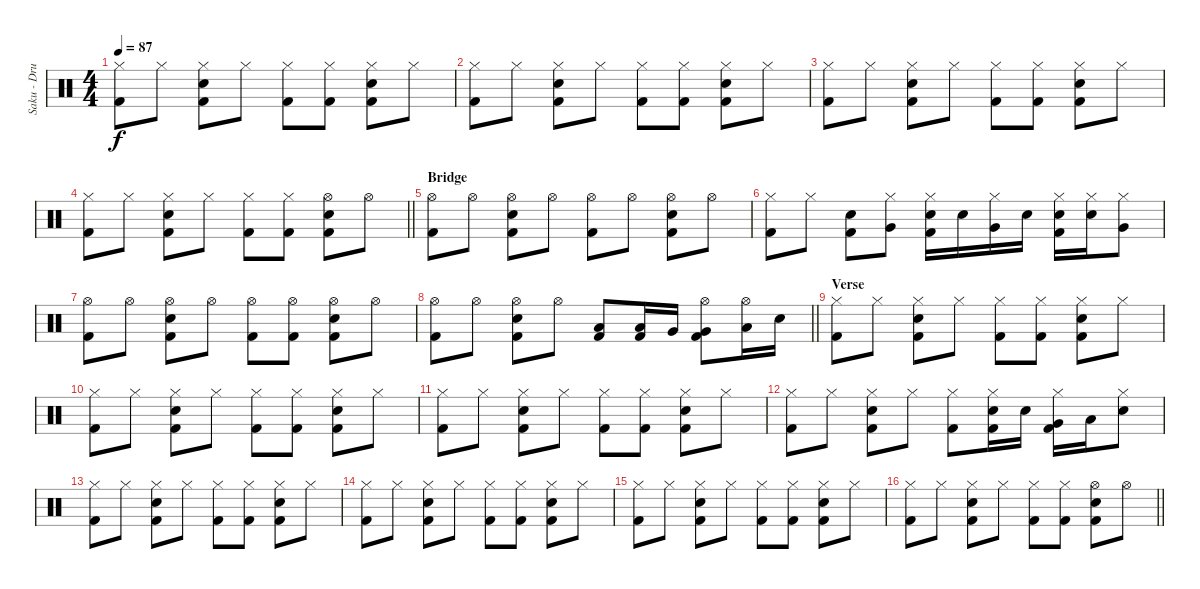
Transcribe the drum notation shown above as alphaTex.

\track ("Saku - Drums" "Saku - Dru") {instrument percussion}
\staff {score}
\articulation defaults
\ts (4 4)
\tempo 87
\clef neutral
\ks c
("Kick (hit) 2" "Hi-Hat (closed)").8{dy f} "Hi-Hat (closed)".8 ("Kick (hit) 2" "Snare (hit) 2" "Hi-Hat (closed)").8 "Hi-Hat (closed)".8 ("Kick (hit) 2" "Hi-Hat (closed)").8 ("Kick (hit) 2" "Hi-Hat (closed)").8 ("Kick (hit) 2" "Snare (hit) 2" "Hi-Hat (closed)").8 "Hi-Hat (closed)".8 |
("Kick (hit) 2" "Hi-Hat (closed)").8 "Hi-Hat (closed)".8 ("Kick (hit) 2" "Snare (hit) 2" "Hi-Hat (closed)").8 "Hi-Hat (closed)".8 ("Kick (hit) 2" "Hi-Hat (closed)").8 ("Kick (hit) 2" "Hi-Hat (closed)").8 ("Kick (hit) 2" "Snare (hit) 2" "Hi-Hat (closed)").8 "Hi-Hat (closed)".8 |
("Kick (hit) 2" "Hi-Hat (closed)").8 "Hi-Hat (closed)".8 ("Kick (hit) 2" "Snare (hit) 2" "Hi-Hat (closed)").8 "Hi-Hat (closed)".8 ("Kick (hit) 2" "Hi-Hat (closed)").8 ("Kick (hit) 2" "Hi-Hat (closed)").8 ("Kick (hit) 2" "Snare (hit) 2" "Hi-Hat (closed)").8 "Hi-Hat (closed)".8 |
\barLineRight lightlight
("Kick (hit) 2" "Hi-Hat (closed)").8 "Hi-Hat (closed)".8 ("Kick (hit) 2" "Snare (hit) 2" "Hi-Hat (closed)").8 "Hi-Hat (closed)".8 ("Kick (hit) 2" "Hi-Hat (closed)").8 ("Kick (hit) 2" "Hi-Hat (closed)").8 ("Kick (hit) 2" "Snare (hit) 2" "Hi-Hat (open)").8 "Hi-Hat (open)".8 |
\section ("" "Bridge")
("Kick (hit) 2" "Hi-Hat (open)").8 "Hi-Hat (open)".8 ("Kick (hit) 2" "Snare (hit) 2" "Hi-Hat (open)").8 "Hi-Hat (open)".8 ("Kick (hit) 2" "Hi-Hat (open)").8 "Hi-Hat (open)".8 ("Kick (hit) 2" "Snare (hit) 2" "Hi-Hat (open)").8 "Hi-Hat (open)".8 |
("Kick (hit) 2" "Hi-Hat (closed)").8 "Hi-Hat (closed)".8 ("Kick (hit) 2" "Snare (hit) 2").8 ("Very Low Tom (hit)" "Hi-Hat (closed)").8 ("Kick (hit) 2" "Snare (hit) 2" "Hi-Hat (closed)").16 "Snare (hit) 2".16 ("Very Low Tom (hit)" "Hi-Hat (closed)").16 "Snare (hit) 2".16 ("Kick (hit) 2" "Snare (hit) 2" "Hi-Hat (closed)").16 ("Snare (hit) 2" "Hi-Hat (closed)").16 ("Very Low Tom (hit)" "Hi-Hat (closed)").8 |
("Kick (hit) 2" "Hi-Hat (open)").8 "Hi-Hat (open)".8 ("Kick (hit) 2" "Snare (hit) 2" "Hi-Hat (open)").8 "Hi-Hat (open)".8 ("Kick (hit) 2" "Hi-Hat (open)").8 ("Kick (hit) 2" "Hi-Hat (open)").8 ("Kick (hit) 2" "Snare (hit) 2" "Hi-Hat (open)").8 "Hi-Hat (open)".8 |
\barLineRight lightlight
("Kick (hit) 2" "Hi-Hat (open)").8 "Hi-Hat (open)".8 ("Kick (hit) 2" "Snare (hit) 2" "Hi-Hat (open)").8 "Hi-Hat (open)".8 ("Kick (hit) 2" "Low Tom (hit)").8 ("Kick (hit) 2" "Low Tom (hit)").16 "Very Low Tom (hit)".16 ("Kick (hit) 2" "Very Low Tom (hit)" "Hi-Hat (open)").8 ("Low Floor Tom (hit)" "Hi-Hat (open)").16 "Snare (hit) 2".16 |
\section ("" "Verse")
("Kick (hit) 2" "Hi-Hat (closed)").8 "Hi-Hat (closed)".8 ("Kick (hit) 2" "Snare (hit) 2" "Hi-Hat (closed)").8 "Hi-Hat (closed)".8 ("Kick (hit) 2" "Hi-Hat (closed)").8 ("Kick (hit) 2" "Hi-Hat (closed)").8 ("Kick (hit) 2" "Snare (hit) 2" "Hi-Hat (closed)").8 "Hi-Hat (closed)".8 |
("Kick (hit) 2" "Hi-Hat (closed)").8 "Hi-Hat (closed)".8 ("Kick (hit) 2" "Snare (hit) 2" "Hi-Hat (closed)").8 "Hi-Hat (closed)".8 ("Kick (hit) 2" "Hi-Hat (closed)").8 ("Kick (hit) 2" "Hi-Hat (closed)").8 ("Kick (hit) 2" "Snare (hit) 2" "Hi-Hat (closed)").8 "Hi-Hat (closed)".8 |
("Kick (hit) 2" "Hi-Hat (closed)").8 "Hi-Hat (closed)".8 ("Kick (hit) 2" "Snare (hit) 2" "Hi-Hat (closed)").8 "Hi-Hat (closed)".8 ("Kick (hit) 2" "Hi-Hat (closed)").8 ("Kick (hit) 2" "Hi-Hat (closed)").8 ("Kick (hit) 2" "Snare (hit) 2" "Hi-Hat (closed)").8 "Hi-Hat (closed)".8 |
("Kick (hit) 2" "Hi-Hat (closed)").8 "Hi-Hat (closed)".8 ("Kick (hit) 2" "Snare (hit) 2" "Hi-Hat (closed)").8 "Hi-Hat (closed)".8 ("Kick (hit) 2" "Hi-Hat (closed)").8 ("Kick (hit) 2" "Snare (hit) 2" "Hi-Hat (closed)").16 "Snare (hit) 2".16 ("Kick (hit) 2" "Very Low Tom (hit)" "Hi-Hat (closed)").16 "Low Tom (hit)".16 ("Snare (hit) 2" "Hi-Hat (closed)").8 |
("Kick (hit) 2" "Hi-Hat (closed)").8 "Hi-Hat (closed)".8 ("Kick (hit) 2" "Snare (hit) 2" "Hi-Hat (closed)").8 "Hi-Hat (closed)".8 ("Kick (hit) 2" "Hi-Hat (closed)").8 ("Kick (hit) 2" "Hi-Hat (closed)").8 ("Kick (hit) 2" "Snare (hit) 2" "Hi-Hat (closed)").8 "Hi-Hat (closed)".8 |
("Kick (hit) 2" "Hi-Hat (closed)").8 "Hi-Hat (closed)".8 ("Kick (hit) 2" "Snare (hit) 2" "Hi-Hat (closed)").8 "Hi-Hat (closed)".8 ("Kick (hit) 2" "Hi-Hat (closed)").8 ("Kick (hit) 2" "Hi-Hat (closed)").8 ("Kick (hit) 2" "Snare (hit) 2" "Hi-Hat (closed)").8 "Hi-Hat (closed)".8 |
("Kick (hit) 2" "Hi-Hat (closed)").8 "Hi-Hat (closed)".8 ("Kick (hit) 2" "Snare (hit) 2" "Hi-Hat (closed)").8 "Hi-Hat (closed)".8 ("Kick (hit) 2" "Hi-Hat (closed)").8 ("Kick (hit) 2" "Hi-Hat (closed)").8 ("Kick (hit) 2" "Snare (hit) 2" "Hi-Hat (closed)").8 "Hi-Hat (closed)".8 |
\barLineRight lightlight
("Kick (hit) 2" "Hi-Hat (closed)").8 "Hi-Hat (closed)".8 ("Kick (hit) 2" "Snare (hit) 2" "Hi-Hat (closed)").8 "Hi-Hat (closed)".8 ("Kick (hit) 2" "Hi-Hat (closed)").8 ("Kick (hit) 2" "Hi-Hat (closed)").8 ("Kick (hit) 2" "Snare (hit) 2" "Hi-Hat (open)").8 "Hi-Hat (open)".8
